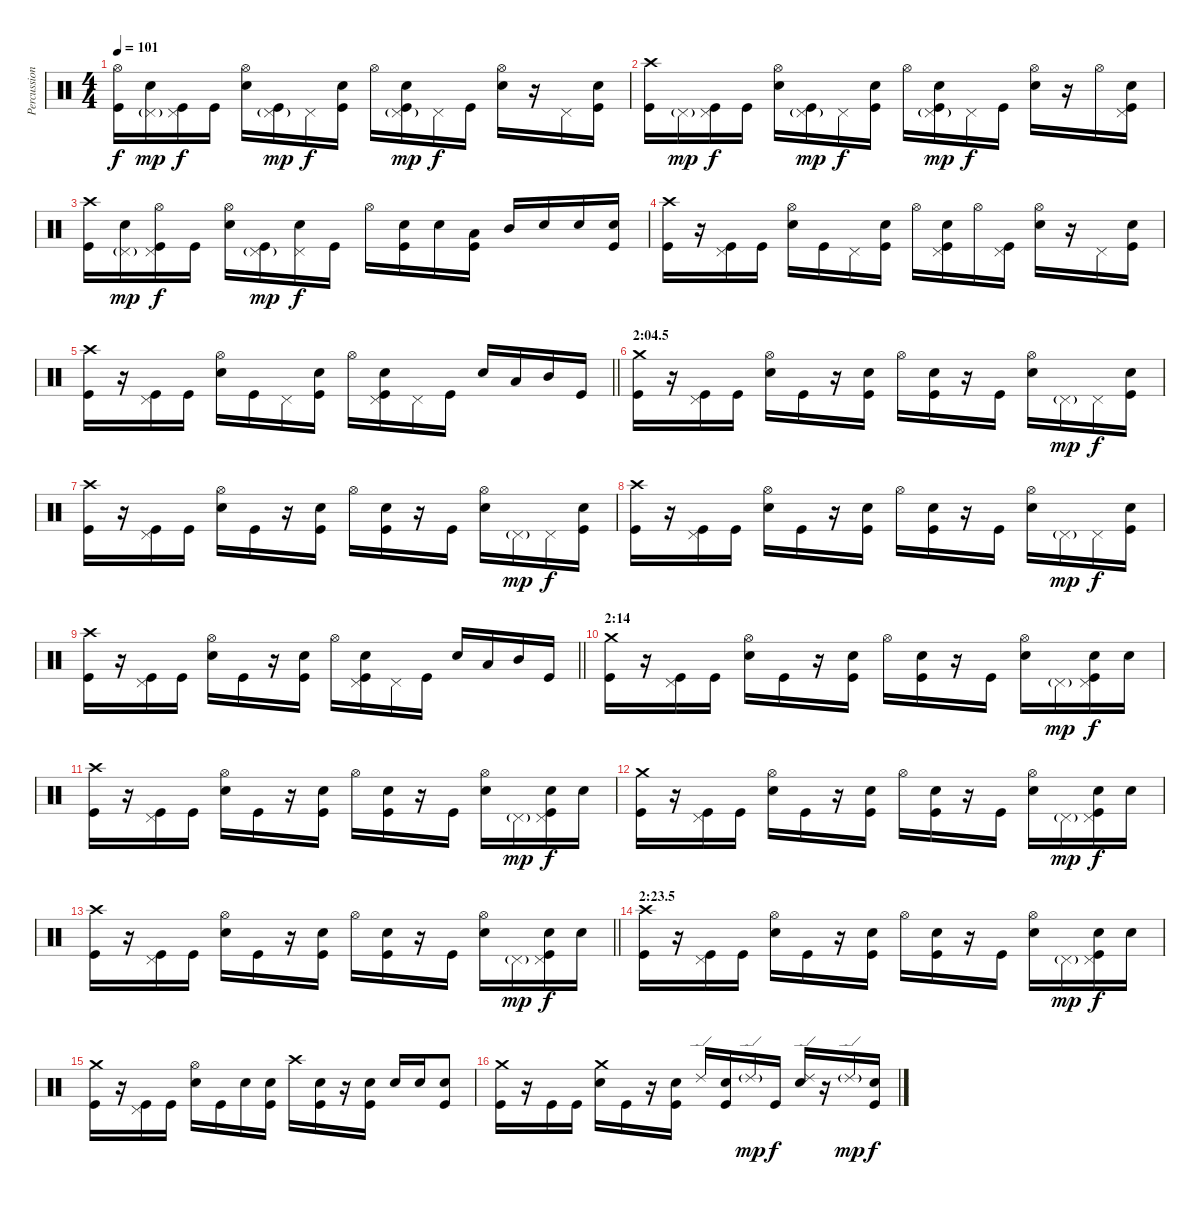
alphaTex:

\track ("Percussion" "Percussion") {instrument percussion}
\staff {score}
\articulation defaults
\ts (4 4)
\tempo 101
\clef neutral
\ks c
("Hi-Hat (open)" "Kick (hit)").16{dy f} ("Snare (hit) 2" "Pedal Hi-Hat (hit)"{g}).16{dy mp} ("Kick (hit)" "Pedal Hi-Hat (hit)").16{dy f} "Kick (hit)".16 ("Hi-Hat (open)" "Snare (hit) 2").16 ("Kick (hit)" "Pedal Hi-Hat (hit)"{g}).16{dy mp} "Pedal Hi-Hat (hit)".16{dy f} ("Snare (hit) 2" "Kick (hit)").16 "Hi-Hat (open)".16 ("Snare (hit) 2" "Kick (hit)" "Pedal Hi-Hat (hit)"{g}).16{dy mp} "Pedal Hi-Hat (hit)".16{dy f} "Kick (hit)".16 ("Hi-Hat (open)" "Snare (hit) 2").16 r.16 "Pedal Hi-Hat (hit)".16 ("Snare (hit) 2" "Kick (hit)").16 |
("Crash high (hit)" "Kick (hit)").16 "Pedal Hi-Hat (hit)"{g}.16{dy mp} ("Kick (hit)" "Pedal Hi-Hat (hit)").16{dy f} "Kick (hit)".16 ("Hi-Hat (open)" "Snare (hit) 2").16 ("Kick (hit)" "Pedal Hi-Hat (hit)"{g}).16{dy mp} "Pedal Hi-Hat (hit)".16{dy f} ("Snare (hit) 2" "Kick (hit)").16 "Hi-Hat (open)".16 ("Snare (hit) 2" "Kick (hit)" "Pedal Hi-Hat (hit)"{g}).16{dy mp} "Pedal Hi-Hat (hit)".16{dy f} "Kick (hit)".16 ("Hi-Hat (open)" "Snare (hit) 2").16 r.16 "Hi-Hat (open)".16 ("Snare (hit) 2" "Kick (hit)" "Pedal Hi-Hat (hit)").16 |
("Crash high (hit)" "Kick (hit)").16 ("Snare (hit) 2" "Pedal Hi-Hat (hit)"{g}).16{dy mp} ("Hi-Hat (open)" "Kick (hit)" "Pedal Hi-Hat (hit)").16{dy f} "Kick (hit)".16 ("Hi-Hat (open)" "Snare (hit) 2").16 ("Kick (hit)" "Pedal Hi-Hat (hit)"{g}).16{dy mp} ("Snare (hit) 2" "Pedal Hi-Hat (hit)").16{dy f} "Kick (hit)".16 "Hi-Hat (open)".16 ("Snare (hit) 2" "Kick (hit)").16 "Snare (hit) 2".16 ("Low Tom (hit)" "Kick (hit)").16 "Mid Tom (hit)".16 "Snare (hit) 2".16 "Snare (hit) 2".16 ("Snare (hit) 2" "Kick (hit)").16 |
("Crash high (hit)" "Kick (hit)").16 r.16 ("Kick (hit)" "Pedal Hi-Hat (hit)").16 "Kick (hit)".16 ("Hi-Hat (open)" "Snare (hit) 2").16 "Kick (hit)".16 "Pedal Hi-Hat (hit)".16 ("Snare (hit) 2" "Kick (hit)").16 "Hi-Hat (open)".16 ("Snare (hit) 2" "Kick (hit)" "Pedal Hi-Hat (hit)").16 "Hi-Hat (open)".16 ("Kick (hit)" "Pedal Hi-Hat (hit)").16 ("Hi-Hat (open)" "Snare (hit) 2").16 r.16 "Pedal Hi-Hat (hit)".16 ("Snare (hit) 2" "Kick (hit)").16 |
\barLineRight lightlight
("Crash high (hit)" "Kick (hit)").16 r.16 ("Kick (hit)" "Pedal Hi-Hat (hit)").16 "Kick (hit)".16 ("Hi-Hat (open)" "Snare (hit) 2").16 "Kick (hit)".16 "Pedal Hi-Hat (hit)".16 ("Snare (hit) 2" "Kick (hit)").16 "Hi-Hat (open)".16 ("Snare (hit) 2" "Kick (hit)" "Pedal Hi-Hat (hit)").16 "Pedal Hi-Hat (hit)".16 "Kick (hit)".16 "Snare (hit) 2".16 "Low Tom (hit)".16 "Mid Tom (hit)".16 "Kick (hit)".16 |
\section ("" "2:04.5")
("Crash medium (hit)" "Kick (hit)").16 r.16 ("Kick (hit)" "Pedal Hi-Hat (hit)").16 "Kick (hit)".16 ("Hi-Hat (open)" "Snare (hit) 2").16 "Kick (hit)".16 r.16 ("Snare (hit) 2" "Kick (hit)").16 "Hi-Hat (open)".16 ("Snare (hit) 2" "Kick (hit)").16 r.16 "Kick (hit)".16 ("Hi-Hat (open)" "Snare (hit) 2").16 "Pedal Hi-Hat (hit)"{g}.16{dy mp} "Pedal Hi-Hat (hit)".16{dy f} ("Snare (hit) 2" "Kick (hit)").16 |
("Crash high (hit)" "Kick (hit)").16 r.16 ("Kick (hit)" "Pedal Hi-Hat (hit)").16 "Kick (hit)".16 ("Hi-Hat (open)" "Snare (hit) 2").16 "Kick (hit)".16 r.16 ("Snare (hit) 2" "Kick (hit)").16 "Hi-Hat (open)".16 ("Snare (hit) 2" "Kick (hit)").16 r.16 "Kick (hit)".16 ("Hi-Hat (open)" "Snare (hit) 2").16 "Pedal Hi-Hat (hit)"{g}.16{dy mp} "Pedal Hi-Hat (hit)".16{dy f} ("Snare (hit) 2" "Kick (hit)").16 |
("Crash high (hit)" "Kick (hit)").16 r.16 ("Kick (hit)" "Pedal Hi-Hat (hit)").16 "Kick (hit)".16 ("Hi-Hat (open)" "Snare (hit) 2").16 "Kick (hit)".16 r.16 ("Snare (hit) 2" "Kick (hit)").16 "Hi-Hat (open)".16 ("Snare (hit) 2" "Kick (hit)").16 r.16 "Kick (hit)".16 ("Hi-Hat (open)" "Snare (hit) 2").16 "Pedal Hi-Hat (hit)"{g}.16{dy mp} "Pedal Hi-Hat (hit)".16{dy f} ("Snare (hit) 2" "Kick (hit)").16 |
\barLineRight lightlight
("Crash high (hit)" "Kick (hit)").16 r.16 ("Kick (hit)" "Pedal Hi-Hat (hit)").16 "Kick (hit)".16 ("Hi-Hat (open)" "Snare (hit) 2").16 "Kick (hit)".16 r.16 ("Snare (hit) 2" "Kick (hit)").16 "Hi-Hat (open)".16 ("Snare (hit) 2" "Kick (hit)" "Pedal Hi-Hat (hit)").16 "Pedal Hi-Hat (hit)".16 "Kick (hit)".16 "Snare (hit) 2".16 "Low Tom (hit)".16 "Mid Tom (hit)".16 "Kick (hit)".16 |
\section ("" "2:14")
("Crash medium (hit)" "Kick (hit)").16 r.16 ("Kick (hit)" "Pedal Hi-Hat (hit)").16 "Kick (hit)".16 ("Hi-Hat (open)" "Snare (hit) 2").16 "Kick (hit)".16 r.16 ("Snare (hit) 2" "Kick (hit)").16 "Hi-Hat (open)".16 ("Snare (hit) 2" "Kick (hit)").16 r.16 "Kick (hit)".16 ("Hi-Hat (open)" "Snare (hit) 2").16 "Pedal Hi-Hat (hit)"{g}.16{dy mp} ("Snare (hit) 2" "Kick (hit)" "Pedal Hi-Hat (hit)").16{dy f} "Snare (hit) 2".16 |
("Crash high (hit)" "Kick (hit)").16 r.16 ("Kick (hit)" "Pedal Hi-Hat (hit)").16 "Kick (hit)".16 ("Hi-Hat (open)" "Snare (hit) 2").16 "Kick (hit)".16 r.16 ("Snare (hit) 2" "Kick (hit)").16 "Hi-Hat (open)".16 ("Snare (hit) 2" "Kick (hit)").16 r.16 "Kick (hit)".16 ("Hi-Hat (open)" "Snare (hit) 2").16 "Pedal Hi-Hat (hit)"{g}.16{dy mp} ("Snare (hit) 2" "Kick (hit)" "Pedal Hi-Hat (hit)").16{dy f} "Snare (hit) 2".16 |
("Crash medium (hit)" "Kick (hit)").16 r.16 ("Kick (hit)" "Pedal Hi-Hat (hit)").16 "Kick (hit)".16 ("Hi-Hat (open)" "Snare (hit) 2").16 "Kick (hit)".16 r.16 ("Snare (hit) 2" "Kick (hit)").16 "Hi-Hat (open)".16 ("Snare (hit) 2" "Kick (hit)").16 r.16 "Kick (hit)".16 ("Hi-Hat (open)" "Snare (hit) 2").16 "Pedal Hi-Hat (hit)"{g}.16{dy mp} ("Snare (hit) 2" "Kick (hit)" "Pedal Hi-Hat (hit)").16{dy f} "Snare (hit) 2".16 |
\barLineRight lightlight
("Crash high (hit)" "Kick (hit)").16 r.16 ("Kick (hit)" "Pedal Hi-Hat (hit)").16 "Kick (hit)".16 ("Hi-Hat (open)" "Snare (hit) 2").16 "Kick (hit)".16 r.16 ("Snare (hit) 2" "Kick (hit)").16 "Hi-Hat (open)".16 ("Snare (hit) 2" "Kick (hit)").16 r.16 "Kick (hit)".16 ("Hi-Hat (open)" "Snare (hit) 2").16 "Pedal Hi-Hat (hit)"{g}.16{dy mp} ("Snare (hit) 2" "Kick (hit)" "Pedal Hi-Hat (hit)").16{dy f} "Snare (hit) 2".16 |
\section ("" "2:23.5")
("Crash high (hit)" "Kick (hit)").16 r.16 ("Kick (hit)" "Pedal Hi-Hat (hit)").16 "Kick (hit)".16 ("Hi-Hat (open)" "Snare (hit) 2").16 "Kick (hit)".16 r.16 ("Snare (hit) 2" "Kick (hit)").16 "Hi-Hat (open)".16 ("Snare (hit) 2" "Kick (hit)").16 r.16 "Kick (hit)".16 ("Hi-Hat (open)" "Snare (hit) 2").16 "Pedal Hi-Hat (hit)"{g}.16{dy mp} ("Snare (hit) 2" "Kick (hit)" "Pedal Hi-Hat (hit)").16{dy f} "Snare (hit) 2".16 |
("Crash medium (hit)" "Kick (hit)").16 r.16 ("Kick (hit)" "Pedal Hi-Hat (hit)").16 "Kick (hit)".16 ("Hi-Hat (open)" "Snare (hit) 2").16 "Kick (hit)".16 "Snare (hit) 2".16 ("Snare (hit) 2" "Kick (hit)").16 "Crash high (hit)".16 ("Snare (hit) 2" "Kick (hit)").16 r.16 ("Snare (hit) 2" "Kick (hit)").16 "Snare (hit) 2".16 "Snare (hit) 2".16 ("Snare (hit) 2" "Kick (hit)").8 |
("Crash medium (hit)" "Kick (hit)").16 r.16 "Kick (hit)".16 "Kick (hit)".16 ("Crash medium (hit)" "Snare (hit) 2").16 "Kick (hit)".16 r.16 ("Snare (hit) 2" "Kick (hit)").16 "Ride (edge) 2".16 ("Snare (hit) 2" "Kick (hit)").16 "Ride (edge) 2"{g}.16{dy mp} "Kick (hit)".16{dy f} ("Ride (edge) 2" "Snare (hit) 2").16 r.16 "Ride (edge) 2"{g}.16{dy mp} ("Snare (hit) 2" "Kick (hit)").16{dy f}
